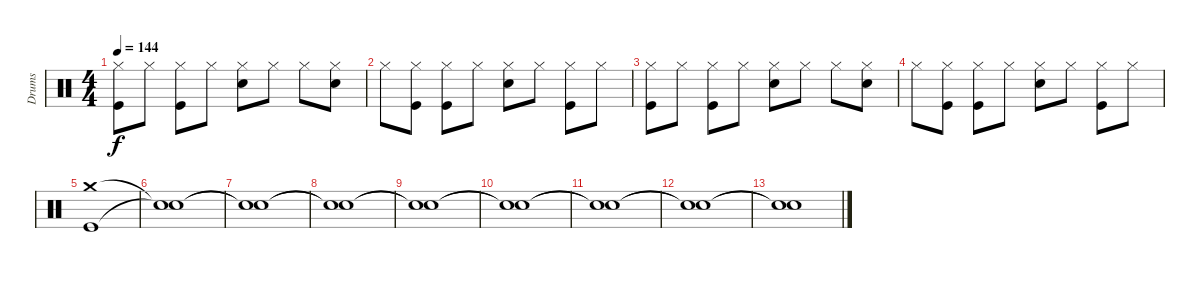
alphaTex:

\track ("Drums" "Drums") {instrument percussion}
\staff {score}
\articulation defaults
\ts (4 4)
\tempo 144
\clef neutral
\ks c
("Hi-Hat (closed)" "Kick (hit)").8{dy f} "Hi-Hat (closed)".8 ("Hi-Hat (closed)" "Kick (hit)").8 "Hi-Hat (closed)".8 ("Hi-Hat (closed)" "Snare (hit) 2").8 "Hi-Hat (closed)".8 "Hi-Hat (closed)".8 ("Hi-Hat (closed)" "Snare (hit) 2").8 |
"Hi-Hat (closed)".8 ("Hi-Hat (closed)" "Kick (hit)").8 ("Hi-Hat (closed)" "Kick (hit)").8 "Hi-Hat (closed)".8 ("Hi-Hat (closed)" "Snare (hit) 2").8 "Hi-Hat (closed)".8 ("Hi-Hat (closed)" "Kick (hit)").8 "Hi-Hat (closed)".8 |
("Hi-Hat (closed)" "Kick (hit)").8 "Hi-Hat (closed)".8 ("Hi-Hat (closed)" "Kick (hit)").8 "Hi-Hat (closed)".8 ("Hi-Hat (closed)" "Snare (hit) 2").8 "Hi-Hat (closed)".8 "Hi-Hat (closed)".8 ("Hi-Hat (closed)" "Snare (hit) 2").8 |
"Hi-Hat (closed)".8 ("Hi-Hat (closed)" "Kick (hit)").8 ("Hi-Hat (closed)" "Kick (hit)").8 "Hi-Hat (closed)".8 ("Hi-Hat (closed)" "Snare (hit) 2").8 "Hi-Hat (closed)".8 ("Hi-Hat (closed)" "Kick (hit)").8 "Hi-Hat (closed)".8 |
("Crash medium (hit)" "Kick (hit)").1 |
("Snare (hit)"{t} "Snare (hit)"{t}).1 |
("Snare (hit)"{t} "Snare (hit)"{t}).1 |
("Snare (hit)"{t} "Snare (hit)"{t}).1 |
("Snare (hit)"{t} "Snare (hit)"{t}).1 |
("Snare (hit)"{t} "Snare (hit)"{t}).1 |
("Snare (hit)"{t} "Snare (hit)"{t}).1 |
("Snare (hit)"{t} "Snare (hit)"{t}).1 |
("Snare (hit)"{t} "Snare (hit)"{t}).1
